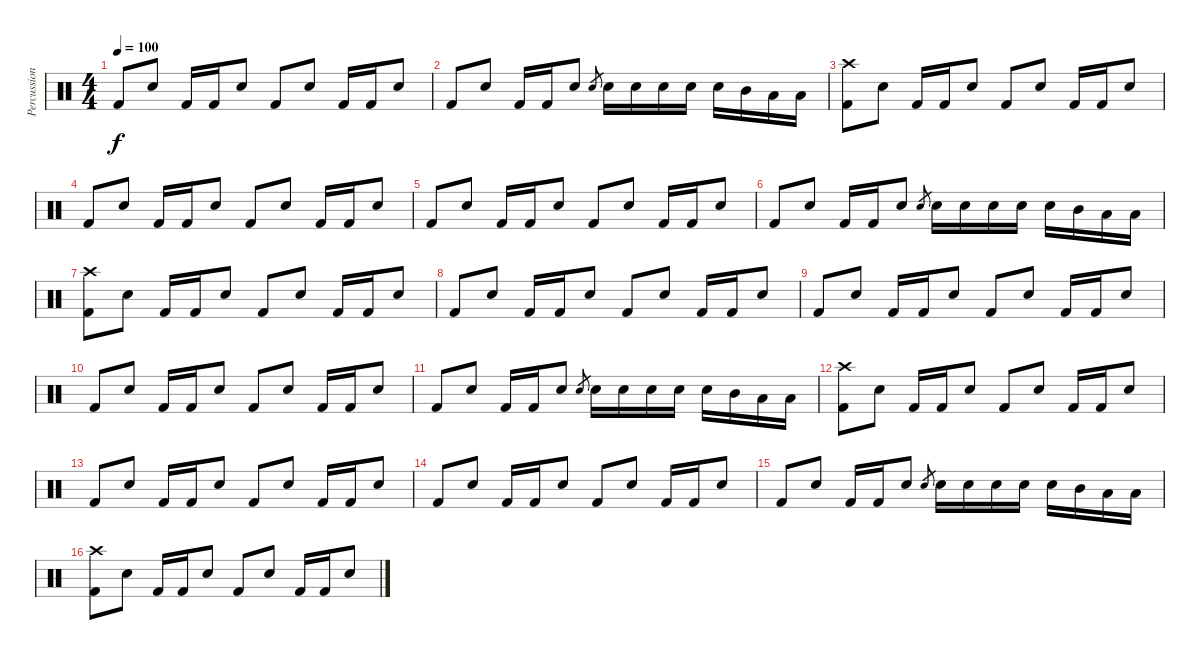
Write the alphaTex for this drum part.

\track ("Percussions" "Percussion") {instrument percussion}
\staff {score}
\articulation defaults
\ts (4 4)
\tempo 100
\clef neutral
\ks c "Kick (hit) 2".8{dy f} "Snare (hit) 2".8 "Kick (hit) 2".16 "Kick (hit) 2".16 "Snare (hit) 2".8 "Kick (hit) 2".8 "Snare (hit) 2".8 "Kick (hit) 2".16 "Kick (hit) 2".16 "Snare (hit) 2".8
|
"Kick (hit) 2".8 "Snare (hit) 2".8 "Kick (hit) 2".16 "Kick (hit) 2".16 "Snare (hit) 2".8 "Snare (hit) 2".8{gr} "Snare (hit) 2".16 "Snare (hit) 2".16 "Snare (hit) 2".16 "Snare (hit) 2".16 "Snare (hit) 2".16 "Mid Tom (hit)".16 "Low Tom (hit)".16 "Low Floor Tom (hit)".16 |
("Crash high (hit)" "Kick (hit) 2").8 "Snare (hit) 2".8 "Kick (hit) 2".16 "Kick (hit) 2".16 "Snare (hit) 2".8 "Kick (hit) 2".8 "Snare (hit) 2".8 "Kick (hit) 2".16 "Kick (hit) 2".16 "Snare (hit) 2".8 |
"Kick (hit) 2".8 "Snare (hit) 2".8 "Kick (hit) 2".16 "Kick (hit) 2".16 "Snare (hit) 2".8 "Kick (hit) 2".8 "Snare (hit) 2".8 "Kick (hit) 2".16 "Kick (hit) 2".16 "Snare (hit) 2".8 |
"Kick (hit) 2".8 "Snare (hit) 2".8 "Kick (hit) 2".16 "Kick (hit) 2".16 "Snare (hit) 2".8 "Kick (hit) 2".8 "Snare (hit) 2".8 "Kick (hit) 2".16 "Kick (hit) 2".16 "Snare (hit) 2".8 |
"Kick (hit) 2".8 "Snare (hit) 2".8 "Kick (hit) 2".16 "Kick (hit) 2".16 "Snare (hit) 2".8 "Snare (hit) 2".8{gr} "Snare (hit) 2".16 "Snare (hit) 2".16 "Snare (hit) 2".16 "Snare (hit) 2".16 "Snare (hit) 2".16 "Mid Tom (hit)".16 "Low Tom (hit)".16 "Low Floor Tom (hit)".16 |
("Crash high (hit)" "Kick (hit) 2").8 "Snare (hit) 2".8 "Kick (hit) 2".16 "Kick (hit) 2".16 "Snare (hit) 2".8 "Kick (hit) 2".8 "Snare (hit) 2".8 "Kick (hit) 2".16 "Kick (hit) 2".16 "Snare (hit) 2".8 |
"Kick (hit) 2".8 "Snare (hit) 2".8 "Kick (hit) 2".16 "Kick (hit) 2".16 "Snare (hit) 2".8 "Kick (hit) 2".8 "Snare (hit) 2".8 "Kick (hit) 2".16 "Kick (hit) 2".16 "Snare (hit) 2".8 |
"Kick (hit) 2".8 "Snare (hit) 2".8 "Kick (hit) 2".16 "Kick (hit) 2".16 "Snare (hit) 2".8 "Kick (hit) 2".8 "Snare (hit) 2".8 "Kick (hit) 2".16 "Kick (hit) 2".16 "Snare (hit) 2".8 |
"Kick (hit) 2".8 "Snare (hit) 2".8 "Kick (hit) 2".16 "Kick (hit) 2".16 "Snare (hit) 2".8 "Kick (hit) 2".8 "Snare (hit) 2".8 "Kick (hit) 2".16 "Kick (hit) 2".16 "Snare (hit) 2".8 |
"Kick (hit) 2".8 "Snare (hit) 2".8 "Kick (hit) 2".16 "Kick (hit) 2".16 "Snare (hit) 2".8 "Snare (hit) 2".8{gr} "Snare (hit) 2".16 "Snare (hit) 2".16 "Snare (hit) 2".16 "Snare (hit) 2".16 "Snare (hit) 2".16 "Mid Tom (hit)".16 "Low Tom (hit)".16 "Low Floor Tom (hit)".16 |
("Crash high (hit)" "Kick (hit) 2").8 "Snare (hit) 2".8 "Kick (hit) 2".16 "Kick (hit) 2".16 "Snare (hit) 2".8 "Kick (hit) 2".8 "Snare (hit) 2".8 "Kick (hit) 2".16 "Kick (hit) 2".16 "Snare (hit) 2".8 |
"Kick (hit) 2".8 "Snare (hit) 2".8 "Kick (hit) 2".16 "Kick (hit) 2".16 "Snare (hit) 2".8 "Kick (hit) 2".8 "Snare (hit) 2".8 "Kick (hit) 2".16 "Kick (hit) 2".16 "Snare (hit) 2".8 |
"Kick (hit) 2".8 "Snare (hit) 2".8 "Kick (hit) 2".16 "Kick (hit) 2".16 "Snare (hit) 2".8 "Kick (hit) 2".8 "Snare (hit) 2".8 "Kick (hit) 2".16 "Kick (hit) 2".16 "Snare (hit) 2".8 |
"Kick (hit) 2".8 "Snare (hit) 2".8 "Kick (hit) 2".16 "Kick (hit) 2".16 "Snare (hit) 2".8 "Snare (hit) 2".8{gr} "Snare (hit) 2".16 "Snare (hit) 2".16 "Snare (hit) 2".16 "Snare (hit) 2".16 "Snare (hit) 2".16 "Mid Tom (hit)".16 "Low Tom (hit)".16 "Low Floor Tom (hit)".16 |
("Crash high (hit)" "Kick (hit) 2").8 "Snare (hit) 2".8 "Kick (hit) 2".16 "Kick (hit) 2".16 "Snare (hit) 2".8 "Kick (hit) 2".8 "Snare (hit) 2".8 "Kick (hit) 2".16 "Kick (hit) 2".16 "Snare (hit) 2".8
